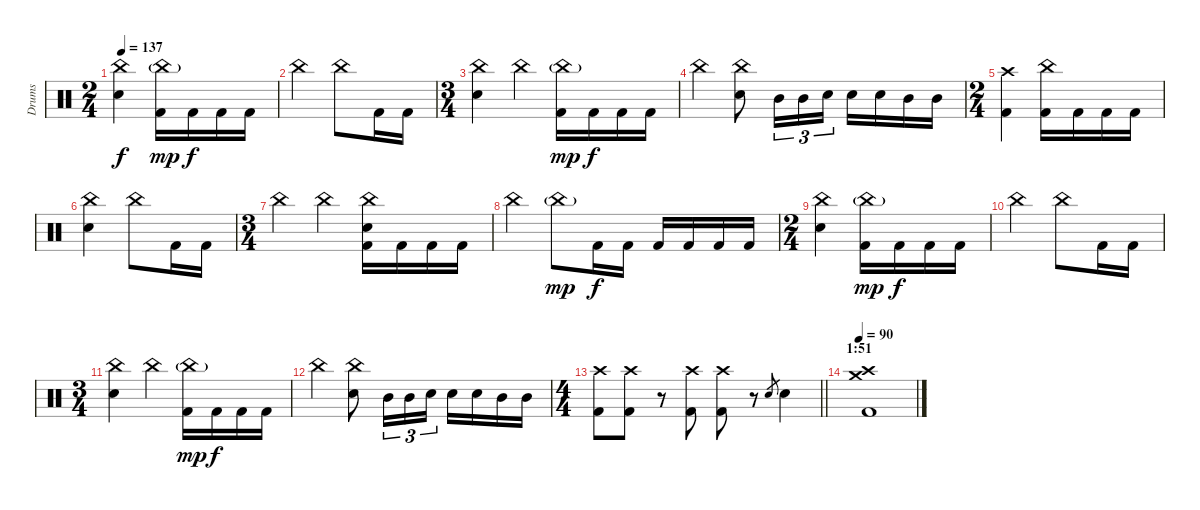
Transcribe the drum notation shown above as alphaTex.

\track ("Drums" "Drums") {instrument percussion}
\staff {score}
\articulation defaults
\ts (2 4)
\tempo 137
\clef neutral
\ks c
("China (hit)" "Electric Snare (hit)").4{dy f} ("China (hit)"{g} "Kick (hit) 2").16{dy mp} "Kick (hit) 2".16{dy f} "Kick (hit) 2".16 "Kick (hit) 2".16 |
"China (hit)".4 "China (hit)".8 "Kick (hit) 2".16 "Kick (hit) 2".16 |
\ts (3 4)
("China (hit)" "Electric Snare (hit)").4 "China (hit)".4 ("China (hit)"{g} "Kick (hit) 2").16{dy mp} "Kick (hit) 2".16{dy f} "Kick (hit) 2".16 "Kick (hit) 2".16 |
"China (hit)".4 ("China (hit)" "Electric Snare (hit)").8 "Mid Tom (hit)".16{tu (3 2)} "Mid Tom (hit)".16{tu (3 2)} "Electric Snare (hit)".16{tu (3 2)} "Electric Snare (hit)".16 "Electric Snare (hit)".16 "Mid Tom (hit)".16 "Mid Tom (hit)".16 |
\ts (2 4)
("Crash high (hit)" "Kick (hit) 2").4 ("China (hit)" "Kick (hit) 2").16 "Kick (hit) 2".16 "Kick (hit) 2".16 "Kick (hit) 2".16 |
("China (hit)" "Electric Snare (hit)").4 "China (hit)".8 "Kick (hit) 2".16 "Kick (hit) 2".16 |
\ts (3 4)
"China (hit)".4 "China (hit)".4 ("China (hit)" "Electric Snare (hit)" "Kick (hit) 2").16 "Kick (hit) 2".16 "Kick (hit) 2".16 "Kick (hit) 2".16 |
"China (hit)".4 "China (hit)"{g}.8{dy mp} "Kick (hit) 2".16{dy f} "Kick (hit) 2".16 "Kick (hit) 2".16 "Kick (hit) 2".16 "Kick (hit) 2".16 "Kick (hit) 2".16 |
\ts (2 4)
("China (hit)" "Electric Snare (hit)").4 ("China (hit)"{g} "Kick (hit) 2").16{dy mp} "Kick (hit) 2".16{dy f} "Kick (hit) 2".16 "Kick (hit) 2".16 |
"China (hit)".4 "China (hit)".8 "Kick (hit) 2".16 "Kick (hit) 2".16 |
\ts (3 4)
("China (hit)" "Electric Snare (hit)").4 "China (hit)".4 ("China (hit)"{g} "Kick (hit) 2").16{dy mp} "Kick (hit) 2".16{dy f} "Kick (hit) 2".16 "Kick (hit) 2".16 |
"China (hit)".4 ("China (hit)" "Electric Snare (hit)").8 "Mid Tom (hit)".16{tu (3 2)} "Mid Tom (hit)".16{tu (3 2)} "Electric Snare (hit)".16{tu (3 2)} "Electric Snare (hit)".16 "Electric Snare (hit)".16 "Mid Tom (hit)".16 "Mid Tom (hit)".16 |
\ts (4 4)
\barLineRight lightlight
("Crash high (hit)" "Kick (hit) 2").8 ("Crash high (hit)" "Kick (hit) 2").8 r.8 ("Crash high (hit)" "Kick (hit) 2").8 ("Kick (hit) 2" "Crash high (hit)").8 r.8 "Electric Snare (hit)".8{gr} "Electric Snare (hit)".4 |
\section ("" "1:51")
\tempo 90
("Crash high (hit)" "Crash medium (hit)" "Kick (hit) 2").1
